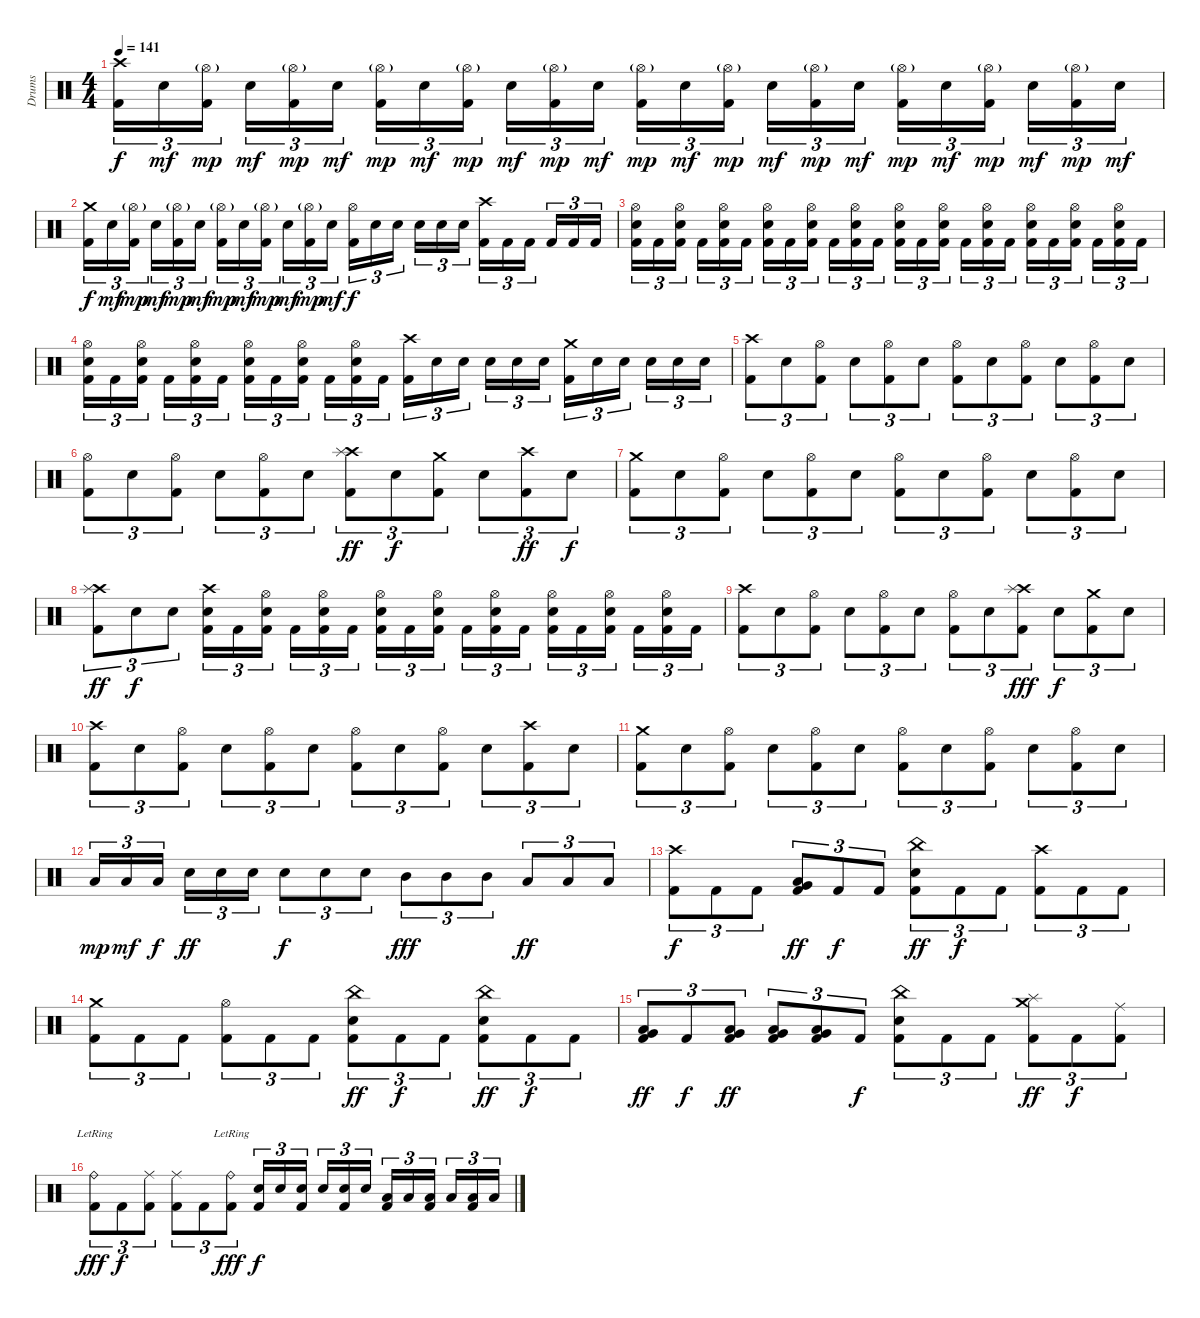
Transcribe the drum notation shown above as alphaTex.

\track ("Drums" "Drums") {instrument percussion}
\staff {score}
\articulation defaults
\ts (4 4)
\tempo 141
\clef neutral
\ks c
("Crash high (hit)" "Kick (hit) 2").16{tu (3 2) dy f} "Electric Snare (hit)".16{tu (3 2) dy mf} ("Hi-Hat (open)"{g} "Kick (hit) 2").16{tu (3 2) dy mp} "Electric Snare (hit)".16{tu (3 2) dy mf} ("Hi-Hat (open)"{g} "Kick (hit) 2").16{tu (3 2) dy mp} "Electric Snare (hit)".16{tu (3 2) dy mf} ("Hi-Hat (open)"{g} "Kick (hit) 2").16{tu (3 2) dy mp} "Electric Snare (hit)".16{tu (3 2) dy mf} ("Hi-Hat (open)"{g} "Kick (hit) 2").16{tu (3 2) dy mp} "Electric Snare (hit)".16{tu (3 2) dy mf} ("Hi-Hat (open)"{g} "Kick (hit) 2").16{tu (3 2) dy mp} "Electric Snare (hit)".16{tu (3 2) dy mf} ("Hi-Hat (open)"{g} "Kick (hit) 2").16{tu (3 2) dy mp} "Electric Snare (hit)".16{tu (3 2) dy mf} ("Hi-Hat (open)"{g} "Kick (hit) 2").16{tu (3 2) dy mp} "Electric Snare (hit)".16{tu (3 2) dy mf} ("Hi-Hat (open)"{g} "Kick (hit) 2").16{tu (3 2) dy mp} "Electric Snare (hit)".16{tu (3 2) dy mf} ("Hi-Hat (open)"{g} "Kick (hit) 2").16{tu (3 2) dy mp} "Electric Snare (hit)".16{tu (3 2) dy mf} ("Hi-Hat (open)"{g} "Kick (hit) 2").16{tu (3 2) dy mp} "Electric Snare (hit)".16{tu (3 2) dy mf} ("Hi-Hat (open)"{g} "Kick (hit) 2").16{tu (3 2) dy mp} "Electric Snare (hit)".16{tu (3 2) dy mf} |
("Crash medium (hit)" "Kick (hit) 2").16{tu (3 2) dy f} "Electric Snare (hit)".16{tu (3 2) dy mf} ("Hi-Hat (open)"{g} "Kick (hit) 2").16{tu (3 2) dy mp} "Electric Snare (hit)".16{tu (3 2) dy mf} ("Hi-Hat (open)"{g} "Kick (hit) 2").16{tu (3 2) dy mp} "Electric Snare (hit)".16{tu (3 2) dy mf} ("Hi-Hat (open)"{g} "Kick (hit) 2").16{tu (3 2) dy mp} "Electric Snare (hit)".16{tu (3 2) dy mf} ("Hi-Hat (open)"{g} "Kick (hit) 2").16{tu (3 2) dy mp} "Electric Snare (hit)".16{tu (3 2) dy mf} ("Hi-Hat (open)"{g} "Kick (hit) 2").16{tu (3 2) dy mp} "Electric Snare (hit)".16{tu (3 2) dy mf} ("Hi-Hat (open)" "Kick (hit) 2").16{tu (3 2) dy f} "Electric Snare (hit)".16{tu (3 2)} "Electric Snare (hit)".16{tu (3 2)} "Electric Snare (hit)".16{tu (3 2)} "Electric Snare (hit)".16{tu (3 2)} "Electric Snare (hit)".16{tu (3 2)} ("Crash high (hit)" "Kick (hit) 2").16{tu (3 2)} "Kick (hit) 2".16{tu (3 2)} "Kick (hit) 2".16{tu (3 2)} "Kick (hit) 2".16{tu (3 2)} "Kick (hit) 2".16{tu (3 2)} "Kick (hit) 2".16{tu (3 2)} |
("Hi-Hat (open)" "Electric Snare (hit)" "Kick (hit) 2").16{tu (3 2)} "Kick (hit) 2".16{tu (3 2)} ("Hi-Hat (open)" "Electric Snare (hit)" "Kick (hit) 2").16{tu (3 2)} "Kick (hit) 2".16{tu (3 2)} ("Hi-Hat (open)" "Electric Snare (hit)" "Kick (hit) 2").16{tu (3 2)} "Kick (hit) 2".16{tu (3 2)} ("Hi-Hat (open)" "Electric Snare (hit)" "Kick (hit) 2").16{tu (3 2)} "Kick (hit) 2".16{tu (3 2)} ("Hi-Hat (open)" "Electric Snare (hit)" "Kick (hit) 2").16{tu (3 2)} "Kick (hit) 2".16{tu (3 2)} ("Hi-Hat (open)" "Electric Snare (hit)" "Kick (hit) 2").16{tu (3 2)} "Kick (hit) 2".16{tu (3 2)} ("Hi-Hat (open)" "Electric Snare (hit)" "Kick (hit) 2").16{tu (3 2)} "Kick (hit) 2".16{tu (3 2)} ("Hi-Hat (open)" "Electric Snare (hit)" "Kick (hit) 2").16{tu (3 2)} "Kick (hit) 2".16{tu (3 2)} ("Hi-Hat (open)" "Electric Snare (hit)" "Kick (hit) 2").16{tu (3 2)} "Kick (hit) 2".16{tu (3 2)} ("Hi-Hat (open)" "Electric Snare (hit)" "Kick (hit) 2").16{tu (3 2)} "Kick (hit) 2".16{tu (3 2)} ("Hi-Hat (open)" "Electric Snare (hit)" "Kick (hit) 2").16{tu (3 2)} "Kick (hit) 2".16{tu (3 2)} ("Hi-Hat (open)" "Electric Snare (hit)" "Kick (hit) 2").16{tu (3 2)} "Kick (hit) 2".16{tu (3 2)} |
("Hi-Hat (open)" "Electric Snare (hit)" "Kick (hit) 2").16{tu (3 2)} "Kick (hit) 2".16{tu (3 2)} ("Hi-Hat (open)" "Electric Snare (hit)" "Kick (hit) 2").16{tu (3 2)} "Kick (hit) 2".16{tu (3 2)} ("Hi-Hat (open)" "Electric Snare (hit)" "Kick (hit) 2").16{tu (3 2)} "Kick (hit) 2".16{tu (3 2)} ("Hi-Hat (open)" "Electric Snare (hit)" "Kick (hit) 2").16{tu (3 2)} "Kick (hit) 2".16{tu (3 2)} ("Hi-Hat (open)" "Electric Snare (hit)" "Kick (hit) 2").16{tu (3 2)} "Kick (hit) 2".16{tu (3 2)} ("Hi-Hat (open)" "Electric Snare (hit)" "Kick (hit) 2").16{tu (3 2)} "Kick (hit) 2".16{tu (3 2)} ("Crash high (hit)" "Kick (hit) 2").16{tu (3 2)} "Electric Snare (hit)".16{tu (3 2)} "Electric Snare (hit)".16{tu (3 2)} "Electric Snare (hit)".16{tu (3 2)} "Electric Snare (hit)".16{tu (3 2)} "Electric Snare (hit)".16{tu (3 2)} ("Crash medium (hit)" "Kick (hit) 2").16{tu (3 2)} "Electric Snare (hit)".16{tu (3 2)} "Electric Snare (hit)".16{tu (3 2)} "Electric Snare (hit)".16{tu (3 2)} "Electric Snare (hit)".16{tu (3 2)} "Electric Snare (hit)".16{tu (3 2)} |
("Crash high (hit)" "Kick (hit) 2").8{tu (3 2)} "Electric Snare (hit)".8{tu (3 2)} ("Hi-Hat (open)" "Kick (hit) 2").8{tu (3 2)} "Electric Snare (hit)".8{tu (3 2)} ("Hi-Hat (open)" "Kick (hit) 2").8{tu (3 2)} "Electric Snare (hit)".8{tu (3 2)} ("Hi-Hat (open)" "Kick (hit) 2").8{tu (3 2)} "Electric Snare (hit)".8{tu (3 2)} ("Hi-Hat (open)" "Kick (hit) 2").8{tu (3 2)} "Electric Snare (hit)".8{tu (3 2)} ("Hi-Hat (open)" "Kick (hit) 2").8{tu (3 2)} "Electric Snare (hit)".8{tu (3 2)} |
("Hi-Hat (open)" "Kick (hit) 2").8{tu (3 2)} "Electric Snare (hit)".8{tu (3 2)} ("Hi-Hat (open)" "Kick (hit) 2").8{tu (3 2)} "Electric Snare (hit)".8{tu (3 2)} ("Hi-Hat (open)" "Kick (hit) 2").8{tu (3 2)} "Electric Snare (hit)".8{tu (3 2)} ("Crash high (hit)" "Splash (hit)" "Kick (hit) 2").8{tu (3 2) dy ff} "Electric Snare (hit)".8{tu (3 2) dy f} ("Crash medium (hit)" "Kick (hit) 2").8{tu (3 2)} "Electric Snare (hit)".8{tu (3 2)} ("Crash high (hit)" "Kick (hit) 2").8{tu (3 2) dy ff} "Electric Snare (hit)".8{tu (3 2) dy f} |
("Crash medium (hit)" "Kick (hit) 2").8{tu (3 2)} "Electric Snare (hit)".8{tu (3 2)} ("Hi-Hat (open)" "Kick (hit) 2").8{tu (3 2)} "Electric Snare (hit)".8{tu (3 2)} ("Hi-Hat (open)" "Kick (hit) 2").8{tu (3 2)} "Electric Snare (hit)".8{tu (3 2)} ("Hi-Hat (open)" "Kick (hit) 2").8{tu (3 2)} "Electric Snare (hit)".8{tu (3 2)} ("Hi-Hat (open)" "Kick (hit) 2").8{tu (3 2)} "Electric Snare (hit)".8{tu (3 2)} ("Hi-Hat (open)" "Kick (hit) 2").8{tu (3 2)} "Electric Snare (hit)".8{tu (3 2)} |
("Crash high (hit)" "Splash (hit)" "Kick (hit) 2").8{tu (3 2) dy ff} "Electric Snare (hit)".8{tu (3 2) dy f} "Electric Snare (hit)".8{tu (3 2)} ("Crash high (hit)" "Electric Snare (hit)" "Kick (hit) 2").16{tu (3 2)} "Kick (hit) 2".16{tu (3 2)} ("Hi-Hat (open)" "Electric Snare (hit)" "Kick (hit) 2").16{tu (3 2)} "Kick (hit) 2".16{tu (3 2)} ("Hi-Hat (open)" "Electric Snare (hit)" "Kick (hit) 2").16{tu (3 2)} "Kick (hit) 2".16{tu (3 2)} ("Hi-Hat (open)" "Electric Snare (hit)" "Kick (hit) 2").16{tu (3 2)} "Kick (hit) 2".16{tu (3 2)} ("Hi-Hat (open)" "Electric Snare (hit)" "Kick (hit) 2").16{tu (3 2)} "Kick (hit) 2".16{tu (3 2)} ("Hi-Hat (open)" "Electric Snare (hit)" "Kick (hit) 2").16{tu (3 2)} "Kick (hit) 2".16{tu (3 2)} ("Hi-Hat (open)" "Electric Snare (hit)" "Kick (hit) 2").16{tu (3 2)} "Kick (hit) 2".16{tu (3 2)} ("Hi-Hat (open)" "Electric Snare (hit)" "Kick (hit) 2").16{tu (3 2)} "Kick (hit) 2".16{tu (3 2)} ("Hi-Hat (open)" "Electric Snare (hit)" "Kick (hit) 2").16{tu (3 2)} "Kick (hit) 2".16{tu (3 2)} |
("Crash high (hit)" "Kick (hit) 2").8{tu (3 2)} "Electric Snare (hit)".8{tu (3 2)} ("Hi-Hat (open)" "Kick (hit) 2").8{tu (3 2)} "Electric Snare (hit)".8{tu (3 2)} ("Hi-Hat (open)" "Kick (hit) 2").8{tu (3 2)} "Electric Snare (hit)".8{tu (3 2)} ("Hi-Hat (open)" "Kick (hit) 2").8{tu (3 2)} "Electric Snare (hit)".8{tu (3 2)} ("Crash high (hit)" "Splash (hit)" "Kick (hit) 2").8{tu (3 2) dy fff} "Electric Snare (hit)".8{tu (3 2) dy f} ("Crash medium (hit)" "Kick (hit) 2").8{tu (3 2)} "Electric Snare (hit)".8{tu (3 2)} |
("Crash high (hit)" "Kick (hit) 2").8{tu (3 2)} "Electric Snare (hit)".8{tu (3 2)} ("Hi-Hat (open)" "Kick (hit) 2").8{tu (3 2)} "Electric Snare (hit)".8{tu (3 2)} ("Hi-Hat (open)" "Kick (hit) 2").8{tu (3 2)} "Electric Snare (hit)".8{tu (3 2)} ("Hi-Hat (open)" "Kick (hit) 2").8{tu (3 2)} "Electric Snare (hit)".8{tu (3 2)} ("Hi-Hat (open)" "Kick (hit) 2").8{tu (3 2)} "Electric Snare (hit)".8{tu (3 2)} ("Crash high (hit)" "Kick (hit) 2").8{tu (3 2)} "Electric Snare (hit)".8{tu (3 2)} |
("Crash medium (hit)" "Kick (hit) 2").8{tu (3 2)} "Electric Snare (hit)".8{tu (3 2)} ("Hi-Hat (open)" "Kick (hit) 2").8{tu (3 2)} "Electric Snare (hit)".8{tu (3 2)} ("Hi-Hat (open)" "Kick (hit) 2").8{tu (3 2)} "Electric Snare (hit)".8{tu (3 2)} ("Hi-Hat (open)" "Kick (hit) 2").8{tu (3 2)} "Electric Snare (hit)".8{tu (3 2)} ("Hi-Hat (open)" "Kick (hit) 2").8{tu (3 2)} "Electric Snare (hit)".8{tu (3 2)} ("Hi-Hat (open)" "Kick (hit) 2").8{tu (3 2)} "Electric Snare (hit)".8{tu (3 2)} |
"Low Tom (hit)".16{tu (3 2) dy mp} "Low Tom (hit)".16{tu (3 2) dy mf} "Low Tom (hit)".16{tu (3 2) dy f} "Electric Snare (hit)".16{tu (3 2) dy ff} "Electric Snare (hit)".16{tu (3 2)} "Electric Snare (hit)".16{tu (3 2)} "Electric Snare (hit)".8{tu (3 2) dy f} "Electric Snare (hit)".8{tu (3 2)} "Electric Snare (hit)".8{tu (3 2)} "Mid Tom (hit)".8{tu (3 2) dy fff} "Mid Tom (hit)".8{tu (3 2)} "Mid Tom (hit)".8{tu (3 2)} "Low Tom (hit)".8{tu (3 2) dy ff} "Low Tom (hit)".8{tu (3 2)} "Low Tom (hit)".8{tu (3 2)} |
("Crash high (hit)" "Kick (hit) 2").8{tu (3 2) dy f} "Kick (hit) 2".8{tu (3 2)} "Kick (hit) 2".8{tu (3 2)} ("Very Low Tom (hit)" "Low Tom (hit)" "Kick (hit) 2").8{tu (3 2) dy ff} "Kick (hit) 2".8{tu (3 2) dy f} "Kick (hit) 2".8{tu (3 2)} ("China (hit)" "Electric Snare (hit)" "Kick (hit) 2").8{tu (3 2) dy ff} "Kick (hit) 2".8{tu (3 2) dy f} "Kick (hit) 2".8{tu (3 2)} ("Crash high (hit)" "Kick (hit) 2").8{tu (3 2)} "Kick (hit) 2".8{tu (3 2)} "Kick (hit) 2".8{tu (3 2)} |
("Crash medium (hit)" "Kick (hit) 2").8{tu (3 2)} "Kick (hit) 2".8{tu (3 2)} "Kick (hit) 2".8{tu (3 2)} ("Hi-Hat (open)" "Kick (hit) 2").8{tu (3 2)} "Kick (hit) 2".8{tu (3 2)} "Kick (hit) 2".8{tu (3 2)} ("China (hit)" "Electric Snare (hit)" "Kick (hit) 2").8{tu (3 2) dy ff} "Kick (hit) 2".8{tu (3 2) dy f} "Kick (hit) 2".8{tu (3 2)} ("China (hit)" "Electric Snare (hit)" "Kick (hit) 2").8{tu (3 2) dy ff} "Kick (hit) 2".8{tu (3 2) dy f} "Kick (hit) 2".8{tu (3 2)} |
("Very Low Tom (hit)" "Low Tom (hit)" "Kick (hit) 2").8{tu (3 2) dy ff} "Kick (hit) 2".8{tu (3 2) dy f} ("Low Floor Tom (hit)" "Very Low Tom (hit)" "Kick (hit) 2").8{tu (3 2) dy ff} ("Low Floor Tom (hit)" "Very Low Tom (hit)" "Kick (hit) 2").8{tu (3 2)} ("Low Floor Tom (hit)" "Very Low Tom (hit)" "Kick (hit) 2").8{tu (3 2)} "Kick (hit) 2".8{tu (3 2) dy f} ("China (hit)" "Electric Snare (hit)" "Kick (hit) 2").8{tu (3 2)} "Kick (hit) 2".8{tu (3 2)} "Kick (hit) 2".8{tu (3 2)} ("Crash medium (hit)" "Splash (hit)" "Kick (hit) 2").8{tu (3 2) dy ff} "Kick (hit) 2".8{tu (3 2) dy f} ("Ride (middle)" "Kick (hit) 2").8{tu (3 2)} |
("Ride (bell)"{lr} "Kick (hit) 2").8{tu (3 2) dy fff} "Kick (hit) 2".8{tu (3 2) dy f} ("Ride (middle)" "Kick (hit) 2").8{tu (3 2)} ("Ride (middle)" "Kick (hit) 2").8{tu (3 2)} "Kick (hit) 2".8{tu (3 2)} ("Ride (bell)"{lr} "Kick (hit) 2").8{tu (3 2) dy fff} ("Electric Snare (hit)" "Kick (hit) 2").16{tu (3 2) dy f} "Electric Snare (hit)".16{tu (3 2)} ("Electric Snare (hit)" "Kick (hit) 2").16{tu (3 2)} "Electric Snare (hit)".16{tu (3 2)} ("Electric Snare (hit)" "Kick (hit) 2").16{tu (3 2)} "Electric Snare (hit)".16{tu (3 2)} ("Low Tom (hit)" "Kick (hit) 2").16{tu (3 2)} "Low Tom (hit)".16{tu (3 2)} ("Low Tom (hit)" "Kick (hit) 2").16{tu (3 2)} "Low Tom (hit)".16{tu (3 2)} ("Low Tom (hit)" "Kick (hit) 2").16{tu (3 2)} "Low Tom (hit)".16{tu (3 2)}
